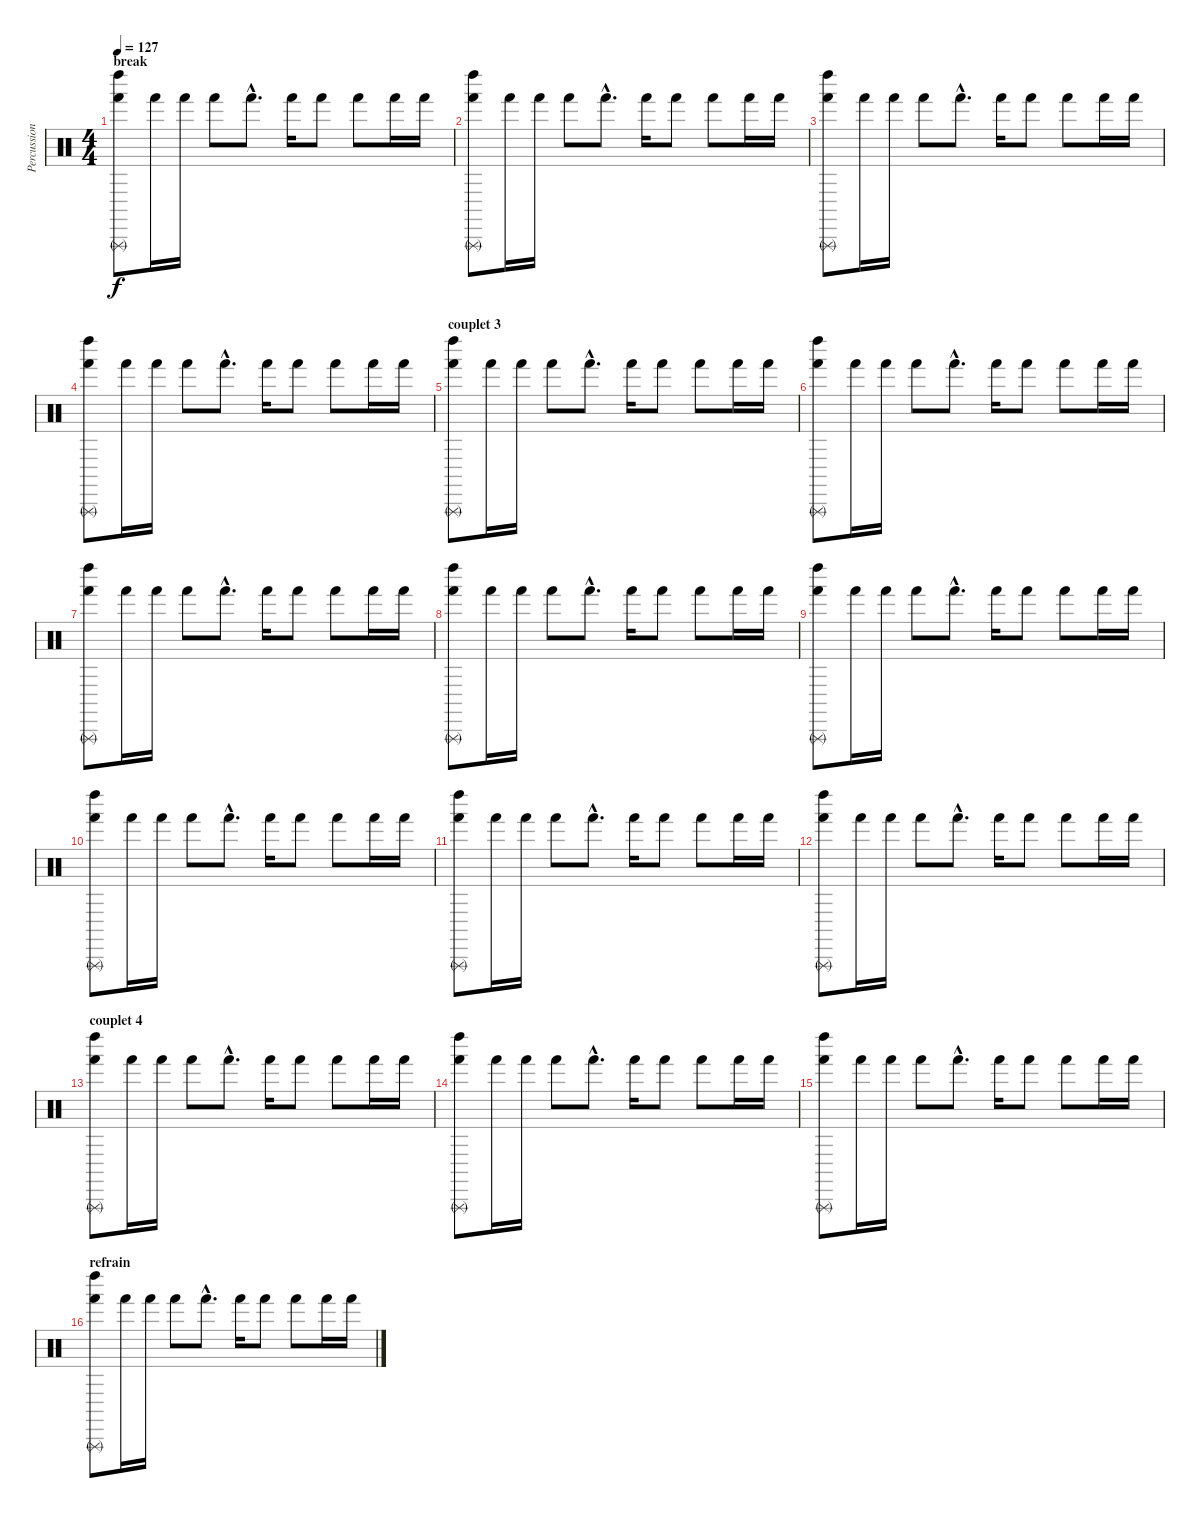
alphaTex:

\track ("Percussions" "Percussion") {instrument percussion}
\staff {score}
\articulation defaults
\ts (4 4)
\section ("" "break")
\tempo 127
\clef neutral
\ks c
("Hand (hit)" "Triangle (rnute)" "Left Maraca (hit)").8{dy f} "Hand (hit)".16 "Hand (hit)".16 "Hand (hit)".8 "Hand (hit)"{hac}.8{d} "Hand (hit)".16 "Hand (hit)".8 "Hand (hit)".8 "Hand (hit)".16 "Hand (hit)".16 |
("Hand (hit)" "Triangle (rnute)" "Left Maraca (hit)").8 "Hand (hit)".16 "Hand (hit)".16 "Hand (hit)".8 "Hand (hit)"{hac}.8{d} "Hand (hit)".16 "Hand (hit)".8 "Hand (hit)".8 "Hand (hit)".16 "Hand (hit)".16 |
("Hand (hit)" "Triangle (rnute)" "Left Maraca (hit)").8 "Hand (hit)".16 "Hand (hit)".16 "Hand (hit)".8 "Hand (hit)"{hac}.8{d} "Hand (hit)".16 "Hand (hit)".8 "Hand (hit)".8 "Hand (hit)".16 "Hand (hit)".16 |
("Hand (hit)" "Triangle (rnute)" "Left Maraca (hit)").8 "Hand (hit)".16 "Hand (hit)".16 "Hand (hit)".8 "Hand (hit)"{hac}.8{d} "Hand (hit)".16 "Hand (hit)".8 "Hand (hit)".8 "Hand (hit)".16 "Hand (hit)".16 |
\section ("" "couplet 3")
("Hand (hit)" "Triangle (rnute)" "Left Maraca (hit)").8 "Hand (hit)".16 "Hand (hit)".16 "Hand (hit)".8 "Hand (hit)"{hac}.8{d} "Hand (hit)".16 "Hand (hit)".8 "Hand (hit)".8 "Hand (hit)".16 "Hand (hit)".16 |
("Hand (hit)" "Triangle (rnute)" "Left Maraca (hit)").8 "Hand (hit)".16 "Hand (hit)".16 "Hand (hit)".8 "Hand (hit)"{hac}.8{d} "Hand (hit)".16 "Hand (hit)".8 "Hand (hit)".8 "Hand (hit)".16 "Hand (hit)".16 |
("Hand (hit)" "Triangle (rnute)" "Left Maraca (hit)").8 "Hand (hit)".16 "Hand (hit)".16 "Hand (hit)".8 "Hand (hit)"{hac}.8{d} "Hand (hit)".16 "Hand (hit)".8 "Hand (hit)".8 "Hand (hit)".16 "Hand (hit)".16 |
("Hand (hit)" "Triangle (rnute)" "Left Maraca (hit)").8 "Hand (hit)".16 "Hand (hit)".16 "Hand (hit)".8 "Hand (hit)"{hac}.8{d} "Hand (hit)".16 "Hand (hit)".8 "Hand (hit)".8 "Hand (hit)".16 "Hand (hit)".16 |
("Hand (hit)" "Triangle (rnute)" "Left Maraca (hit)").8 "Hand (hit)".16 "Hand (hit)".16 "Hand (hit)".8 "Hand (hit)"{hac}.8{d} "Hand (hit)".16 "Hand (hit)".8 "Hand (hit)".8 "Hand (hit)".16 "Hand (hit)".16 |
("Hand (hit)" "Triangle (rnute)" "Left Maraca (hit)").8 "Hand (hit)".16 "Hand (hit)".16 "Hand (hit)".8 "Hand (hit)"{hac}.8{d} "Hand (hit)".16 "Hand (hit)".8 "Hand (hit)".8 "Hand (hit)".16 "Hand (hit)".16 |
("Hand (hit)" "Triangle (rnute)" "Left Maraca (hit)").8 "Hand (hit)".16 "Hand (hit)".16 "Hand (hit)".8 "Hand (hit)"{hac}.8{d} "Hand (hit)".16 "Hand (hit)".8 "Hand (hit)".8 "Hand (hit)".16 "Hand (hit)".16 |
("Hand (hit)" "Triangle (rnute)" "Left Maraca (hit)").8 "Hand (hit)".16 "Hand (hit)".16 "Hand (hit)".8 "Hand (hit)"{hac}.8{d} "Hand (hit)".16 "Hand (hit)".8 "Hand (hit)".8 "Hand (hit)".16 "Hand (hit)".16 |
\section ("" "couplet 4")
("Hand (hit)" "Triangle (rnute)" "Left Maraca (hit)").8 "Hand (hit)".16 "Hand (hit)".16 "Hand (hit)".8 "Hand (hit)"{hac}.8{d} "Hand (hit)".16 "Hand (hit)".8 "Hand (hit)".8 "Hand (hit)".16 "Hand (hit)".16 |
("Hand (hit)" "Triangle (rnute)" "Left Maraca (hit)").8 "Hand (hit)".16 "Hand (hit)".16 "Hand (hit)".8 "Hand (hit)"{hac}.8{d} "Hand (hit)".16 "Hand (hit)".8 "Hand (hit)".8 "Hand (hit)".16 "Hand (hit)".16 |
("Hand (hit)" "Triangle (rnute)" "Left Maraca (hit)").8 "Hand (hit)".16 "Hand (hit)".16 "Hand (hit)".8 "Hand (hit)"{hac}.8{d} "Hand (hit)".16 "Hand (hit)".8 "Hand (hit)".8 "Hand (hit)".16 "Hand (hit)".16 |
\section ("" "refrain")
("Hand (hit)" "Triangle (rnute)" "Left Maraca (hit)").8 "Hand (hit)".16 "Hand (hit)".16 "Hand (hit)".8 "Hand (hit)"{hac}.8{d} "Hand (hit)".16 "Hand (hit)".8 "Hand (hit)".8 "Hand (hit)".16 "Hand (hit)".16
